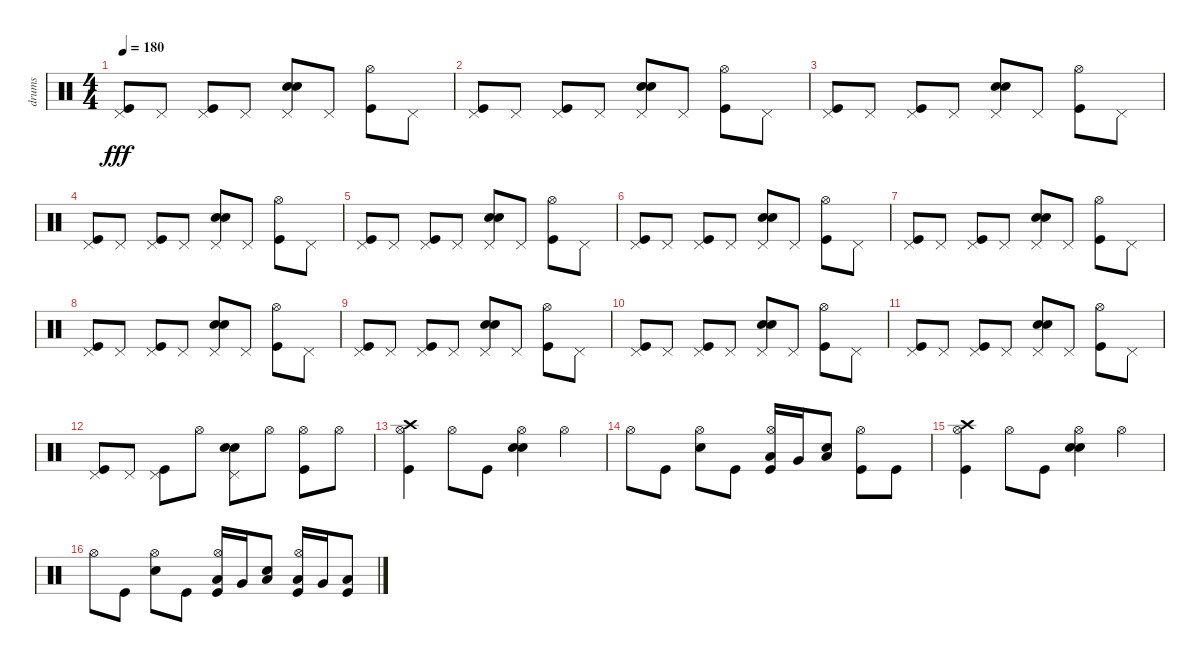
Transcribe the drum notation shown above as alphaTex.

\track ("drums" "drums") {instrument percussion}
\staff {score}
\articulation defaults
\ts (4 4)
\tempo 180
\clef neutral
\ks c
("Kick (hit)" "Pedal Hi-Hat (hit)").8{dy fff} "Pedal Hi-Hat (hit)".8 ("Kick (hit)" "Pedal Hi-Hat (hit)").8 "Pedal Hi-Hat (hit)".8 ("Snare (hit) 2" "Electric Snare (hit)" "Pedal Hi-Hat (hit)").8 "Pedal Hi-Hat (hit)".8 ("Hi-Hat (open)" "Kick (hit)").8 "Pedal Hi-Hat (hit)".8 |
("Kick (hit)" "Pedal Hi-Hat (hit)").8 "Pedal Hi-Hat (hit)".8 ("Kick (hit)" "Pedal Hi-Hat (hit)").8 "Pedal Hi-Hat (hit)".8 ("Snare (hit) 2" "Electric Snare (hit)" "Pedal Hi-Hat (hit)").8 "Pedal Hi-Hat (hit)".8 ("Hi-Hat (open)" "Kick (hit)").8 "Pedal Hi-Hat (hit)".8 |
("Kick (hit)" "Pedal Hi-Hat (hit)").8 "Pedal Hi-Hat (hit)".8 ("Kick (hit)" "Pedal Hi-Hat (hit)").8 "Pedal Hi-Hat (hit)".8 ("Snare (hit) 2" "Electric Snare (hit)" "Pedal Hi-Hat (hit)").8 "Pedal Hi-Hat (hit)".8 ("Hi-Hat (open)" "Kick (hit)").8 "Pedal Hi-Hat (hit)".8 |
("Kick (hit)" "Pedal Hi-Hat (hit)").8 "Pedal Hi-Hat (hit)".8 ("Kick (hit)" "Pedal Hi-Hat (hit)").8 "Pedal Hi-Hat (hit)".8 ("Snare (hit) 2" "Electric Snare (hit)" "Pedal Hi-Hat (hit)").8 "Pedal Hi-Hat (hit)".8 ("Hi-Hat (open)" "Kick (hit)").8 "Pedal Hi-Hat (hit)".8 |
("Pedal Hi-Hat (hit)" "Kick (hit)").8 "Pedal Hi-Hat (hit)".8 ("Kick (hit)" "Pedal Hi-Hat (hit)").8 "Pedal Hi-Hat (hit)".8 ("Snare (hit) 2" "Electric Snare (hit)" "Pedal Hi-Hat (hit)").8 "Pedal Hi-Hat (hit)".8 ("Hi-Hat (open)" "Kick (hit)").8 "Pedal Hi-Hat (hit)".8 |
("Kick (hit)" "Pedal Hi-Hat (hit)").8 "Pedal Hi-Hat (hit)".8 ("Kick (hit)" "Pedal Hi-Hat (hit)").8 "Pedal Hi-Hat (hit)".8 ("Snare (hit) 2" "Electric Snare (hit)" "Pedal Hi-Hat (hit)").8 "Pedal Hi-Hat (hit)".8 ("Hi-Hat (open)" "Kick (hit)").8 "Pedal Hi-Hat (hit)".8 |
("Kick (hit)" "Pedal Hi-Hat (hit)").8 "Pedal Hi-Hat (hit)".8 ("Kick (hit)" "Pedal Hi-Hat (hit)").8 "Pedal Hi-Hat (hit)".8 ("Snare (hit) 2" "Electric Snare (hit)" "Pedal Hi-Hat (hit)").8 "Pedal Hi-Hat (hit)".8 ("Hi-Hat (open)" "Kick (hit)").8 "Pedal Hi-Hat (hit)".8 |
("Kick (hit)" "Pedal Hi-Hat (hit)").8 "Pedal Hi-Hat (hit)".8 ("Kick (hit)" "Pedal Hi-Hat (hit)").8 "Pedal Hi-Hat (hit)".8 ("Snare (hit) 2" "Electric Snare (hit)" "Pedal Hi-Hat (hit)").8 "Pedal Hi-Hat (hit)".8 ("Hi-Hat (open)" "Kick (hit)").8 "Pedal Hi-Hat (hit)".8 |
("Kick (hit)" "Pedal Hi-Hat (hit)").8 "Pedal Hi-Hat (hit)".8 ("Kick (hit)" "Pedal Hi-Hat (hit)").8 "Pedal Hi-Hat (hit)".8 ("Snare (hit) 2" "Electric Snare (hit)" "Pedal Hi-Hat (hit)").8 "Pedal Hi-Hat (hit)".8 ("Hi-Hat (open)" "Kick (hit)").8 "Pedal Hi-Hat (hit)".8 |
("Kick (hit)" "Pedal Hi-Hat (hit)").8 "Pedal Hi-Hat (hit)".8 ("Kick (hit)" "Pedal Hi-Hat (hit)").8 "Pedal Hi-Hat (hit)".8 ("Snare (hit) 2" "Electric Snare (hit)" "Pedal Hi-Hat (hit)").8 "Pedal Hi-Hat (hit)".8 ("Hi-Hat (open)" "Kick (hit)").8 "Pedal Hi-Hat (hit)".8 |
("Kick (hit)" "Pedal Hi-Hat (hit)").8 "Pedal Hi-Hat (hit)".8 ("Kick (hit)" "Pedal Hi-Hat (hit)").8 "Pedal Hi-Hat (hit)".8 ("Snare (hit) 2" "Electric Snare (hit)" "Pedal Hi-Hat (hit)").8 "Pedal Hi-Hat (hit)".8 ("Hi-Hat (open)" "Kick (hit)").8 "Pedal Hi-Hat (hit)".8 |
("Kick (hit)" "Pedal Hi-Hat (hit)").8 "Pedal Hi-Hat (hit)".8 ("Kick (hit)" "Pedal Hi-Hat (hit)").8 "Hi-Hat (open)".8 ("Snare (hit) 2" "Electric Snare (hit)" "Pedal Hi-Hat (hit)").8 "Hi-Hat (open)".8 ("Hi-Hat (open)" "Kick (hit)").8 "Hi-Hat (open)".8 |
("Kick (hit)" "Hi-Hat (open)" "Crash high (hit)").4 "Hi-Hat (open)".8 "Kick (hit)".8 ("Snare (hit) 2" "Electric Snare (hit)" "Hi-Hat (open)").4 "Hi-Hat (open)".4 |
"Hi-Hat (open)".8 "Kick (hit)".8 ("Snare (hit) 2" "Hi-Hat (open)").8 "Kick (hit)".8 ("Kick (hit)" "Hi-Hat (open)" "Low Tom (hit)").16 "Very Low Tom (hit)".16 ("Snare (hit) 2" "Low Floor Tom (hit)").8 ("Kick (hit)" "Hi-Hat (open)").8 "Kick (hit)".8 |
("Crash high (hit)" "Hi-Hat (open)" "Kick (hit)").4 "Hi-Hat (open)".8 "Kick (hit)".8 ("Snare (hit) 2" "Electric Snare (hit)" "Hi-Hat (open)").4 "Hi-Hat (open)".4 |
"Hi-Hat (open)".8 "Kick (hit)".8 ("Snare (hit) 2" "Hi-Hat (open)").8 "Kick (hit)".8 ("Kick (hit)" "Hi-Hat (open)" "Low Tom (hit)").16 "Very Low Tom (hit)".16 ("Snare (hit) 2" "Low Floor Tom (hit)").8 ("Kick (hit)" "Hi-Hat (open)" "Low Floor Tom (hit)").16 "Very Low Tom (hit)".16 ("Kick (hit)" "Low Floor Tom (hit)").8
